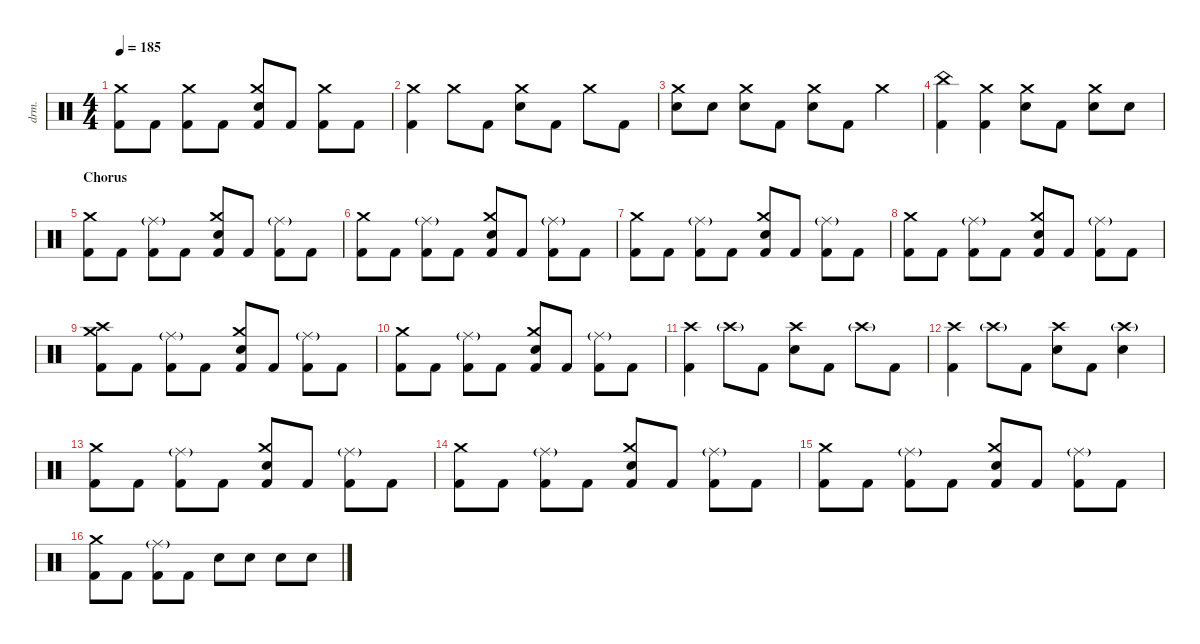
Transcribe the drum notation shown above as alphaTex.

\defaultSystemsLayout 4
\hideDynamics
\bracketExtendMode nobrackets
\track ("Drums - Šimon" "drm.") {instrument percussion}
\staff {score}
\articulation defaults
\ts (4 4)
\tempo 185
\clef neutral
\ks c
("Kick (hit) 2" "Crash medium (hit)").8{dy ff} "Kick (hit) 2".8 ("Kick (hit) 2" "Crash medium (hit)").8 "Kick (hit) 2".8 ("Snare (hit) 2" "Crash medium (hit)" "Kick (hit) 2").8 "Kick (hit) 2".8 ("Kick (hit) 2" "Crash medium (hit)").8 "Kick (hit) 2".8 |
("Kick (hit) 2" "Crash medium (hit)").4 "Crash medium (hit)".8 "Kick (hit) 2".8 ("Snare (hit) 2" "Crash medium (hit)").8 "Kick (hit) 2".8 "Crash medium (hit)".8 "Kick (hit) 2".8 |
("Crash medium (hit)" "Snare (hit) 2").8 "Snare (hit) 2".8 ("Snare (hit) 2" "Crash medium (hit)").8 "Kick (hit) 2".8 ("Snare (hit) 2" "Crash medium (hit)").8 "Kick (hit) 2".8 "Crash medium (hit)".4 |
("China (hit)" "Kick (hit) 2").4 ("Crash medium (hit)" "Kick (hit) 2").4 ("Crash medium (hit)" "Snare (hit) 2").8 "Kick (hit) 2".8 ("Crash medium (hit)" "Snare (hit) 2").8 "Snare (hit) 2".8 |
\section ("" "Chorus")
("Kick (hit) 2" "Crash medium (hit)").8 "Kick (hit) 2".8 ("Kick (hit) 2" "Ride (middle)"{g}).8 "Kick (hit) 2".8 ("Snare (hit) 2" "Kick (hit) 2" "Crash medium (hit)").8 "Kick (hit) 2".8 ("Kick (hit) 2" "Ride (middle)"{g}).8 "Kick (hit) 2".8 |
("Kick (hit) 2" "Crash medium (hit)").8 "Kick (hit) 2".8 ("Kick (hit) 2" "Ride (middle)"{g}).8 "Kick (hit) 2".8 ("Snare (hit) 2" "Kick (hit) 2" "Crash medium (hit)").8 "Kick (hit) 2".8 ("Kick (hit) 2" "Ride (middle)"{g}).8 "Kick (hit) 2".8 |
("Kick (hit) 2" "Crash medium (hit)").8 "Kick (hit) 2".8 ("Kick (hit) 2" "Ride (middle)"{g}).8 "Kick (hit) 2".8 ("Snare (hit) 2" "Kick (hit) 2" "Crash medium (hit)").8 "Kick (hit) 2".8 ("Kick (hit) 2" "Ride (middle)"{g}).8 "Kick (hit) 2".8 |
("Kick (hit) 2" "Crash medium (hit)").8 "Kick (hit) 2".8 ("Kick (hit) 2" "Ride (middle)"{g}).8 "Kick (hit) 2".8 ("Snare (hit) 2" "Kick (hit) 2" "Crash medium (hit)").8 "Kick (hit) 2".8 ("Kick (hit) 2" "Ride (middle)"{g}).8 "Kick (hit) 2".8 |
("Kick (hit) 2" "Crash medium (hit)" "Crash high (hit)").8 "Kick (hit) 2".8 ("Kick (hit) 2" "Ride (middle)"{g}).8 "Kick (hit) 2".8 ("Snare (hit) 2" "Kick (hit) 2" "Crash medium (hit)").8 "Kick (hit) 2".8 ("Kick (hit) 2" "Ride (middle)"{g}).8 "Kick (hit) 2".8 |
("Kick (hit) 2" "Crash medium (hit)").8 "Kick (hit) 2".8 ("Kick (hit) 2" "Ride (middle)"{g}).8 "Kick (hit) 2".8 ("Snare (hit) 2" "Kick (hit) 2" "Crash medium (hit)").8 "Kick (hit) 2".8 ("Kick (hit) 2" "Ride (middle)"{g}).8 "Kick (hit) 2".8 |
("Crash high (hit)" "Kick (hit) 2").4 "Crash high (hit)"{g}.8 "Kick (hit) 2".8 ("Snare (hit) 2" "Crash high (hit)").8 "Kick (hit) 2".8 "Crash high (hit)"{g}.8 "Kick (hit) 2".8 |
("Crash high (hit)" "Kick (hit) 2").4 "Crash high (hit)"{g}.8 "Kick (hit) 2".8 ("Snare (hit) 2" "Crash high (hit)").8 "Kick (hit) 2".8 ("Crash high (hit)"{g} "Snare (hit) 2").4 |
("Kick (hit) 2" "Crash medium (hit)").8 "Kick (hit) 2".8 ("Kick (hit) 2" "Ride (middle)"{g}).8 "Kick (hit) 2".8 ("Snare (hit) 2" "Kick (hit) 2" "Crash medium (hit)").8 "Kick (hit) 2".8 ("Kick (hit) 2" "Ride (middle)"{g}).8 "Kick (hit) 2".8 |
("Kick (hit) 2" "Crash medium (hit)").8 "Kick (hit) 2".8 ("Kick (hit) 2" "Ride (middle)"{g}).8 "Kick (hit) 2".8 ("Snare (hit) 2" "Kick (hit) 2" "Crash medium (hit)").8 "Kick (hit) 2".8 ("Kick (hit) 2" "Ride (middle)"{g}).8 "Kick (hit) 2".8 |
("Kick (hit) 2" "Crash medium (hit)").8 "Kick (hit) 2".8 ("Kick (hit) 2" "Ride (middle)"{g}).8 "Kick (hit) 2".8 ("Snare (hit) 2" "Kick (hit) 2" "Crash medium (hit)").8 "Kick (hit) 2".8 ("Kick (hit) 2" "Ride (middle)"{g}).8 "Kick (hit) 2".8 |
("Kick (hit) 2" "Crash medium (hit)").8 "Kick (hit) 2".8 ("Kick (hit) 2" "Ride (middle)"{g}).8 "Kick (hit) 2".8 "Snare (hit) 2".8 "Snare (hit) 2".8 "Snare (hit) 2".8 "Snare (hit) 2".8
